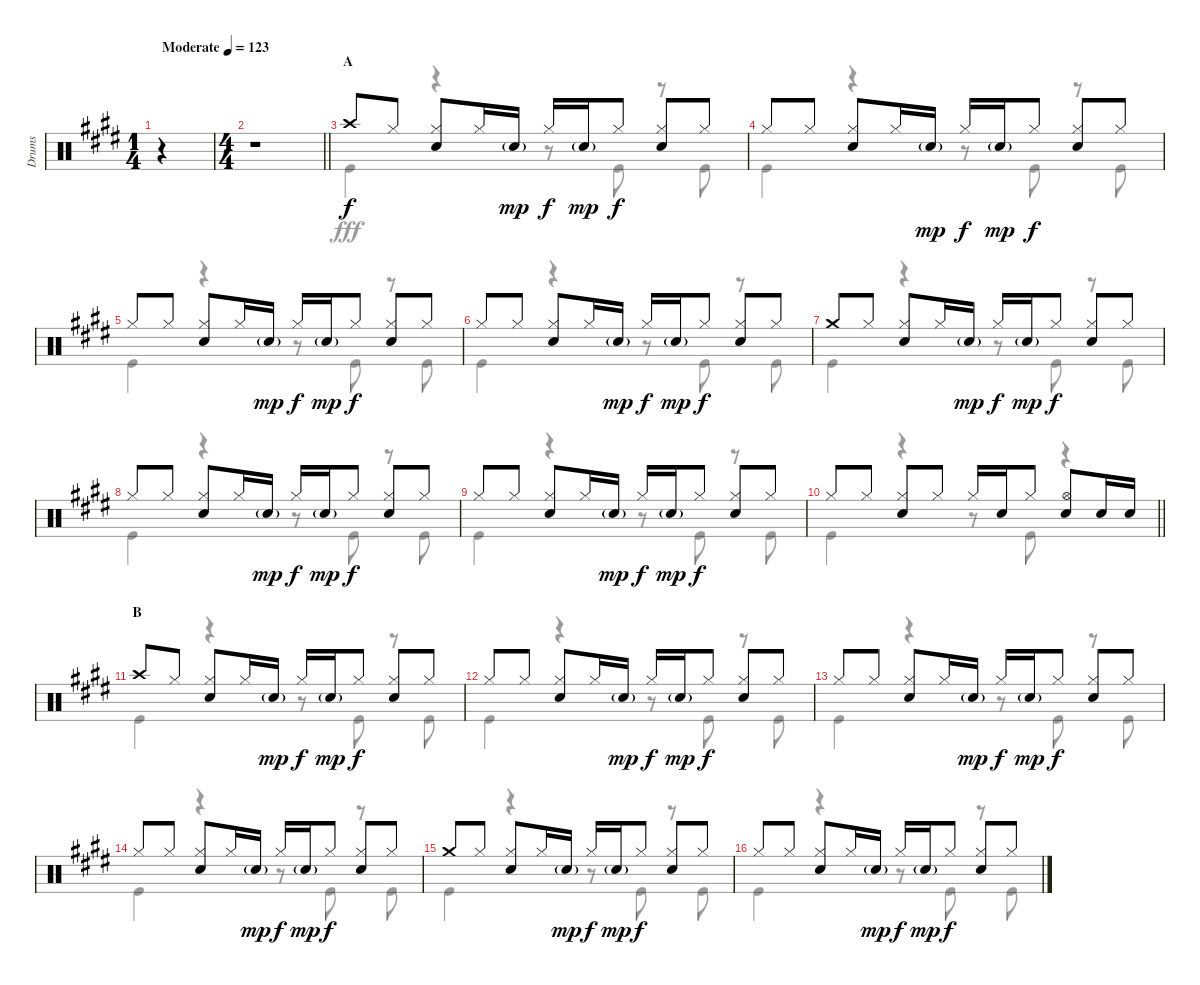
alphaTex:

\track ("Drums" "Drums") {instrument percussion}
\staff {score}
\articulation defaults
\voice
\ts (1 4)
\tempo (123 "Moderate")
\clef neutral
\ks e
r.4{dy f} |
\ts (4 4)
\barLineRight lightlight
r.1 |
\section ("" "A")
"Crash high (hit)".8 "Hi-Hat (closed)".8 ("Hi-Hat (closed)" "Snare (hit) 2").8 "Hi-Hat (closed)".16 "Snare (hit) 2"{g}.16{dy mp} "Hi-Hat (closed)".16{dy f} "Snare (hit) 2"{g}.16{dy mp} "Hi-Hat (closed)".8{dy f} ("Hi-Hat (closed)" "Snare (hit) 2").8 "Hi-Hat (closed)".8 |
"Hi-Hat (closed)".8 "Hi-Hat (closed)".8 ("Hi-Hat (closed)" "Snare (hit) 2").8 "Hi-Hat (closed)".16 "Snare (hit) 2"{g}.16{dy mp} "Hi-Hat (closed)".16{dy f} "Snare (hit) 2"{g}.16{dy mp} "Hi-Hat (closed)".8{dy f} ("Hi-Hat (closed)" "Snare (hit) 2").8 "Hi-Hat (closed)".8 |
"Hi-Hat (closed)".8 "Hi-Hat (closed)".8 ("Hi-Hat (closed)" "Snare (hit) 2").8 "Hi-Hat (closed)".16 "Snare (hit) 2"{g}.16{dy mp} "Hi-Hat (closed)".16{dy f} "Snare (hit) 2"{g}.16{dy mp} "Hi-Hat (closed)".8{dy f} ("Hi-Hat (closed)" "Snare (hit) 2").8 "Hi-Hat (closed)".8 |
"Hi-Hat (closed)".8 "Hi-Hat (closed)".8 ("Hi-Hat (closed)" "Snare (hit) 2").8 "Hi-Hat (closed)".16 "Snare (hit) 2"{g}.16{dy mp} "Hi-Hat (closed)".16{dy f} "Snare (hit) 2"{g}.16{dy mp} "Hi-Hat (closed)".8{dy f} ("Hi-Hat (closed)" "Snare (hit) 2").8 "Hi-Hat (closed)".8 |
"Crash medium (hit)".8 "Hi-Hat (closed)".8 ("Hi-Hat (closed)" "Snare (hit) 2").8 "Hi-Hat (closed)".16 "Snare (hit) 2"{g}.16{dy mp} "Hi-Hat (closed)".16{dy f} "Snare (hit) 2"{g}.16{dy mp} "Hi-Hat (closed)".8{dy f} ("Hi-Hat (closed)" "Snare (hit) 2").8 "Hi-Hat (closed)".8 |
"Hi-Hat (closed)".8 "Hi-Hat (closed)".8 ("Hi-Hat (closed)" "Snare (hit) 2").8 "Hi-Hat (closed)".16 "Snare (hit) 2"{g}.16{dy mp} "Hi-Hat (closed)".16{dy f} "Snare (hit) 2"{g}.16{dy mp} "Hi-Hat (closed)".8{dy f} ("Hi-Hat (closed)" "Snare (hit) 2").8 "Hi-Hat (closed)".8 |
"Hi-Hat (closed)".8 "Hi-Hat (closed)".8 ("Hi-Hat (closed)" "Snare (hit) 2").8 "Hi-Hat (closed)".16 "Snare (hit) 2"{g}.16{dy mp} "Hi-Hat (closed)".16{dy f} "Snare (hit) 2"{g}.16{dy mp} "Hi-Hat (closed)".8{dy f} ("Hi-Hat (closed)" "Snare (hit) 2").8 "Hi-Hat (closed)".8 |
\barLineRight lightlight "Hi-Hat (closed)".8 "Hi-Hat (closed)".8
("Hi-Hat (closed)" "Snare (hit) 2").8 "Hi-Hat (closed)".8 "Hi-Hat (closed)".16 "Snare (hit) 2".16 "Hi-Hat (closed)".8 ("Hi-Hat (open)" "Snare (hit) 2").8 "Snare (hit) 2".16 "Snare (hit) 2".16 |
\section ("" "B")
"Crash high (hit)".8 "Hi-Hat (closed)".8 ("Hi-Hat (closed)" "Snare (hit) 2").8 "Hi-Hat (closed)".16 "Snare (hit) 2"{g}.16{dy mp} "Hi-Hat (closed)".16{dy f} "Snare (hit) 2"{g}.16{dy mp} "Hi-Hat (closed)".8{dy f} ("Hi-Hat (closed)" "Snare (hit) 2").8 "Hi-Hat (closed)".8 |
"Hi-Hat (closed)".8 "Hi-Hat (closed)".8 ("Hi-Hat (closed)" "Snare (hit) 2").8 "Hi-Hat (closed)".16 "Snare (hit) 2"{g}.16{dy mp} "Hi-Hat (closed)".16{dy f} "Snare (hit) 2"{g}.16{dy mp} "Hi-Hat (closed)".8{dy f} ("Hi-Hat (closed)" "Snare (hit) 2").8 "Hi-Hat (closed)".8 |
"Hi-Hat (closed)".8 "Hi-Hat (closed)".8 ("Hi-Hat (closed)" "Snare (hit) 2").8 "Hi-Hat (closed)".16 "Snare (hit) 2"{g}.16{dy mp} "Hi-Hat (closed)".16{dy f} "Snare (hit) 2"{g}.16{dy mp} "Hi-Hat (closed)".8{dy f} ("Hi-Hat (closed)" "Snare (hit) 2").8 "Hi-Hat (closed)".8 |
"Hi-Hat (closed)".8 "Hi-Hat (closed)".8 ("Hi-Hat (closed)" "Snare (hit) 2").8 "Hi-Hat (closed)".16 "Snare (hit) 2"{g}.16{dy mp} "Hi-Hat (closed)".16{dy f} "Snare (hit) 2"{g}.16{dy mp} "Hi-Hat (closed)".8{dy f} ("Hi-Hat (closed)" "Snare (hit) 2").8 "Hi-Hat (closed)".8 |
"Crash medium (hit)".8 "Hi-Hat (closed)".8 ("Hi-Hat (closed)" "Snare (hit) 2").8 "Hi-Hat (closed)".16 "Snare (hit) 2"{g}.16{dy mp} "Hi-Hat (closed)".16{dy f} "Snare (hit) 2"{g}.16{dy mp} "Hi-Hat (closed)".8{dy f} ("Hi-Hat (closed)" "Snare (hit) 2").8 "Hi-Hat (closed)".8 |
"Hi-Hat (closed)".8 "Hi-Hat (closed)".8 ("Hi-Hat (closed)" "Snare (hit) 2").8 "Hi-Hat (closed)".16 "Snare (hit) 2"{g}.16{dy mp} "Hi-Hat (closed)".16{dy f} "Snare (hit) 2"{g}.16{dy mp} "Hi-Hat (closed)".8{dy f} ("Hi-Hat (closed)" "Snare (hit) 2").8 "Hi-Hat (closed)".8
\voice
\clef neutral
\ottava regular
\simile none
\ks e
r.4{dy fff} |
\barLineRight lightlight
r.1 |
"Kick (hit)".4 r.4 r.8 "Kick (hit)".8 r.8 "Kick (hit)".8 |
"Kick (hit)".4 r.4 r.8 "Kick (hit)".8 r.8 "Kick (hit)".8 |
"Kick (hit)".4 r.4 r.8 "Kick (hit)".8 r.8 "Kick (hit)".8 |
"Kick (hit)".4 r.4 r.8 "Kick (hit)".8 r.8 "Kick (hit)".8 |
"Kick (hit)".4 r.4 r.8 "Kick (hit)".8 r.8 "Kick (hit)".8 |
"Kick (hit)".4 r.4 r.8 "Kick (hit)".8 r.8 "Kick (hit)".8 |
"Kick (hit)".4 r.4 r.8 "Kick (hit)".8 r.8 "Kick (hit)".8 |
\barLineRight lightlight "Kick (hit)".4
r.4 r.8 "Kick (hit)".8 r.4 |
"Kick (hit)".4 r.4 r.8 "Kick (hit)".8 r.8 "Kick (hit)".8 |
"Kick (hit)".4 r.4 r.8 "Kick (hit)".8 r.8 "Kick (hit)".8 |
"Kick (hit)".4 r.4 r.8 "Kick (hit)".8 r.8 "Kick (hit)".8 |
"Kick (hit)".4 r.4 r.8 "Kick (hit)".8 r.8 "Kick (hit)".8 |
"Kick (hit)".4 r.4 r.8 "Kick (hit)".8 r.8 "Kick (hit)".8 |
"Kick (hit)".4 r.4 r.8 "Kick (hit)".8 r.8 "Kick (hit)".8
